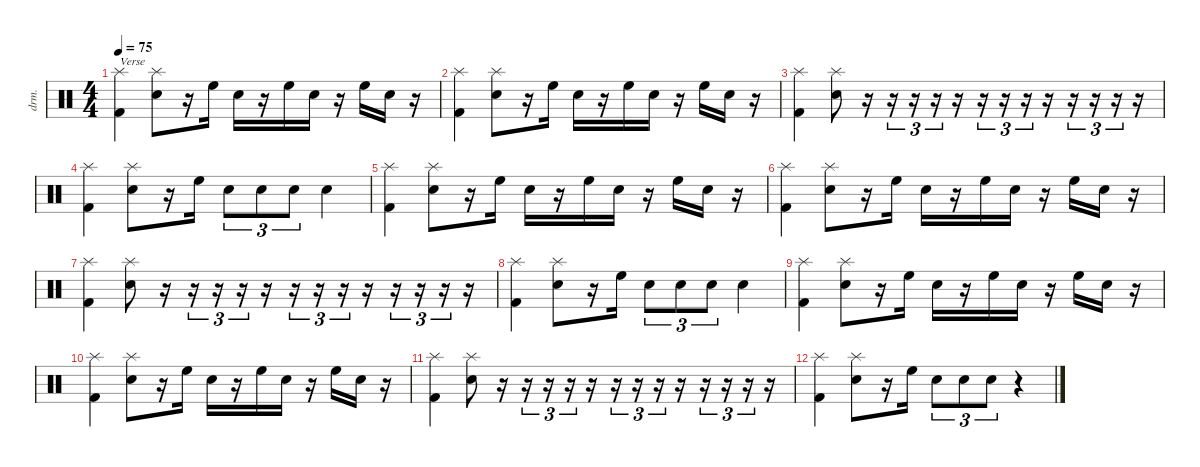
\defaultSystemsLayout 4
\hideDynamics
\bracketExtendMode nobrackets
\otherSystemsTrackNameOrientation horizontal
\track ("Drumkit" "drm.") {instrument percussion}
\staff {score}
\articulation defaults
\ts (4 4)
\tempo 75
\clef neutral
\ks c
("Kick (hit) 2" "Splash (hit)").4{txt "Verse" dy mf beam Down} ("Snare (hit) 2" "Splash (hit)").8{beam Down} r.16{beam Down} "High Floor Tom (hit)".16{beam Down} "Snare (hit) 2".16{beam Down} r.16{beam Down} "High Floor Tom (hit)".16{beam Down} "Snare (hit) 2".16{beam Down} r.16{beam Down} "High Floor Tom (hit)".16{beam Down} "Snare (hit) 2".16{beam Down} r.16{beam Down} |
("Kick (hit) 2" "Splash (hit)").4{beam Down} ("Snare (hit) 2" "Splash (hit)").8{beam Down} r.16{beam Down} "High Floor Tom (hit)".16{beam Down} "Snare (hit) 2".16{beam Down} r.16{beam Down} "High Floor Tom (hit)".16{beam Down} "Snare (hit) 2".16{beam Down} r.16{beam Down} "High Floor Tom (hit)".16{beam Down} "Snare (hit) 2".16{beam Down} r.16{beam Down} |
("Kick (hit) 2" "Splash (hit)").4{beam Down} ("Snare (hit) 2" "Splash (hit)").8{beam Down} r.16{beam Down} r.16{tu (3 2) beam Down} r.16{tu (3 2) beam Down} r.16{tu (3 2) beam Down} r.16{beam Down} r.16{tu (3 2) beam Down} r.16{tu (3 2) beam Down} r.16{tu (3 2) beam Down} r.16{beam Down} r.16{tu (3 2) beam Down} r.16{tu (3 2) beam Down} r.16{tu (3 2) beam Down} r.16{beam Down} |
("Kick (hit) 2" "Splash (hit)").4{beam Down} ("Snare (hit) 2" "Splash (hit)").8{beam Down} r.16{beam Down} "High Floor Tom (hit)".16{beam Down} "Snare (hit) 2".8{tu (3 2) beam Down} "Snare (hit) 2".8{tu (3 2) beam Down} "Snare (hit) 2".8{tu (3 2) beam Down} "Snare (hit) 2".4{beam Down} |
("Kick (hit) 2" "Splash (hit)").4{beam Down} ("Snare (hit) 2" "Splash (hit)").8{beam Down} r.16{beam Down} "High Floor Tom (hit)".16{beam Down} "Snare (hit) 2".16{beam Down} r.16{beam Down} "High Floor Tom (hit)".16{beam Down} "Snare (hit) 2".16{beam Down} r.16{beam Down} "High Floor Tom (hit)".16{beam Down} "Snare (hit) 2".16{beam Down} r.16{beam Down} |
("Kick (hit) 2" "Splash (hit)").4{beam Down} ("Snare (hit) 2" "Splash (hit)").8{beam Down} r.16{beam Down} "High Floor Tom (hit)".16{beam Down} "Snare (hit) 2".16{beam Down} r.16{beam Down} "High Floor Tom (hit)".16{beam Down} "Snare (hit) 2".16{beam Down} r.16{beam Down} "High Floor Tom (hit)".16{beam Down} "Snare (hit) 2".16{beam Down} r.16{beam Down} |
("Kick (hit) 2" "Splash (hit)").4{beam Down} ("Snare (hit) 2" "Splash (hit)").8{beam Down} r.16{beam Down} r.16{tu (3 2) beam Down} r.16{tu (3 2) beam Down} r.16{tu (3 2) beam Down} r.16{beam Down} r.16{tu (3 2) beam Down} r.16{tu (3 2) beam Down} r.16{tu (3 2) beam Down} r.16{beam Down} r.16{tu (3 2) beam Down} r.16{tu (3 2) beam Down} r.16{tu (3 2) beam Down} r.16{beam Down} |
("Kick (hit) 2" "Splash (hit)").4{beam Down} ("Snare (hit) 2" "Splash (hit)").8{beam Down} r.16{beam Down} "High Floor Tom (hit)".16{beam Down} "Snare (hit) 2".8{tu (3 2) beam Down} "Snare (hit) 2".8{tu (3 2) beam Down} "Snare (hit) 2".8{tu (3 2) beam Down} "Snare (hit) 2".4{beam Down} |
("Kick (hit) 2" "Splash (hit)").4{beam Down} ("Snare (hit) 2" "Splash (hit)").8{beam Down} r.16{beam Down} "High Floor Tom (hit)".16{beam Down} "Snare (hit) 2".16{beam Down} r.16{beam Down} "High Floor Tom (hit)".16{beam Down} "Snare (hit) 2".16{beam Down} r.16{beam Down} "High Floor Tom (hit)".16{beam Down} "Snare (hit) 2".16{beam Down} r.16{beam Down} |
("Kick (hit) 2" "Splash (hit)").4{beam Down} ("Snare (hit) 2" "Splash (hit)").8{beam Down} r.16{beam Down} "High Floor Tom (hit)".16{beam Down} "Snare (hit) 2".16{beam Down} r.16{beam Down} "High Floor Tom (hit)".16{beam Down} "Snare (hit) 2".16{beam Down} r.16{beam Down} "High Floor Tom (hit)".16{beam Down} "Snare (hit) 2".16{beam Down} r.16{beam Down} |
("Kick (hit) 2" "Splash (hit)").4{beam Down} ("Snare (hit) 2" "Splash (hit)").8{beam Down} r.16{beam Down} r.16{tu (3 2) beam Down} r.16{tu (3 2) beam Down} r.16{tu (3 2) beam Down} r.16{beam Down} r.16{tu (3 2) beam Down} r.16{tu (3 2) beam Down} r.16{tu (3 2) beam Down} r.16{beam Down} r.16{tu (3 2) beam Down} r.16{tu (3 2) beam Down} r.16{tu (3 2) beam Down} r.16{beam Down} |
("Kick (hit) 2" "Splash (hit)").4{beam Down} ("Snare (hit) 2" "Splash (hit)").8{beam Down} r.16{beam Down} "High Floor Tom (hit)".16{beam Down} "Snare (hit) 2".8{tu (3 2) beam Down} "Snare (hit) 2".8{tu (3 2) beam Down} "Snare (hit) 2".8{tu (3 2) beam Down} r.4{beam Down}
